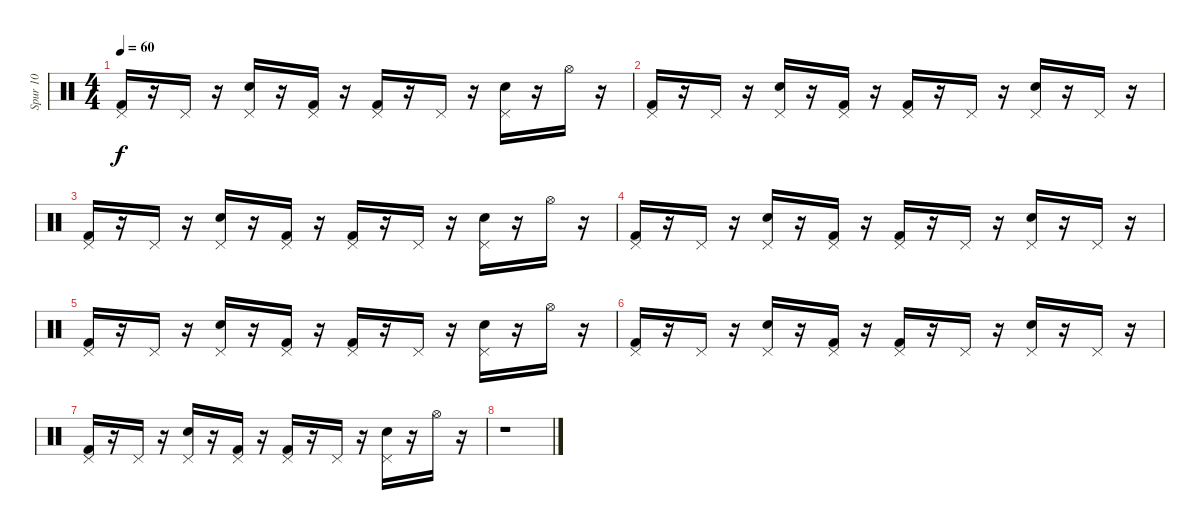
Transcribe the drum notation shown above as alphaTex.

\track ("Spur 10" "Spur 10") {instrument percussion}
\staff {score}
\articulation defaults
\ts (4 4)
\tempo 60
\clef neutral
\ks c
("Pedal Hi-Hat (hit)" "Kick (hit) 2").16{dy f} r.16 "Pedal Hi-Hat (hit)".16 r.16 ("Pedal Hi-Hat (hit)" "Snare (hit) 2").16 r.16 ("Pedal Hi-Hat (hit)" "Kick (hit) 2").16 r.16 ("Kick (hit) 2" "Pedal Hi-Hat (hit)").16 r.16 "Pedal Hi-Hat (hit)".16 r.16 ("Pedal Hi-Hat (hit)" "Snare (hit) 2").16 r.16 "Hi-Hat (open)".16 r.16 |
("Pedal Hi-Hat (hit)" "Kick (hit) 2").16 r.16 "Pedal Hi-Hat (hit)".16 r.16 ("Snare (hit) 2" "Pedal Hi-Hat (hit)").16 r.16 ("Kick (hit) 2" "Pedal Hi-Hat (hit)").16 r.16 ("Kick (hit) 2" "Pedal Hi-Hat (hit)").16 r.16 "Pedal Hi-Hat (hit)".16 r.16 ("Snare (hit) 2" "Pedal Hi-Hat (hit)").16 r.16 "Pedal Hi-Hat (hit)".16 r.16 |
("Kick (hit) 2" "Pedal Hi-Hat (hit)").16 r.16 "Pedal Hi-Hat (hit)".16 r.16 ("Snare (hit) 2" "Pedal Hi-Hat (hit)").16 r.16 ("Pedal Hi-Hat (hit)" "Kick (hit) 2").16 r.16 ("Pedal Hi-Hat (hit)" "Kick (hit) 2").16 r.16 "Pedal Hi-Hat (hit)".16 r.16 ("Snare (hit) 2" "Pedal Hi-Hat (hit)").16 r.16 "Hi-Hat (open)".16 r.16 |
("Pedal Hi-Hat (hit)" "Kick (hit) 2").16 r.16 "Pedal Hi-Hat (hit)".16 r.16 ("Pedal Hi-Hat (hit)" "Snare (hit) 2").16 r.16 ("Kick (hit) 2" "Pedal Hi-Hat (hit)").16 r.16 ("Kick (hit) 2" "Pedal Hi-Hat (hit)").16 r.16 "Pedal Hi-Hat (hit)".16 r.16 ("Snare (hit) 2" "Pedal Hi-Hat (hit)").16 r.16 "Pedal Hi-Hat (hit)".16 r.16 |
("Kick (hit) 2" "Pedal Hi-Hat (hit)").16 r.16 "Pedal Hi-Hat (hit)".16 r.16 ("Pedal Hi-Hat (hit)" "Snare (hit) 2").16 r.16 ("Pedal Hi-Hat (hit)" "Kick (hit) 2").16 r.16 ("Pedal Hi-Hat (hit)" "Kick (hit) 2").16 r.16 "Pedal Hi-Hat (hit)".16 r.16 ("Snare (hit) 2" "Pedal Hi-Hat (hit)").16 r.16 "Hi-Hat (open)".16 r.16 |
("Kick (hit) 2" "Pedal Hi-Hat (hit)").16 r.16 "Pedal Hi-Hat (hit)".16 r.16 ("Snare (hit) 2" "Pedal Hi-Hat (hit)").16 r.16 ("Kick (hit) 2" "Pedal Hi-Hat (hit)").16 r.16 ("Pedal Hi-Hat (hit)" "Kick (hit) 2").16 r.16 "Pedal Hi-Hat (hit)".16 r.16 ("Pedal Hi-Hat (hit)" "Snare (hit) 2").16 r.16 "Pedal Hi-Hat (hit)".16 r.16 |
("Pedal Hi-Hat (hit)" "Kick (hit) 2").16 r.16 "Pedal Hi-Hat (hit)".16 r.16 ("Snare (hit) 2" "Pedal Hi-Hat (hit)").16 r.16 ("Kick (hit) 2" "Pedal Hi-Hat (hit)").16 r.16 ("Pedal Hi-Hat (hit)" "Kick (hit) 2").16 r.16 "Pedal Hi-Hat (hit)".16 r.16 ("Snare (hit) 2" "Pedal Hi-Hat (hit)").16 r.16 "Hi-Hat (open)".16 r.16 |
r.1
